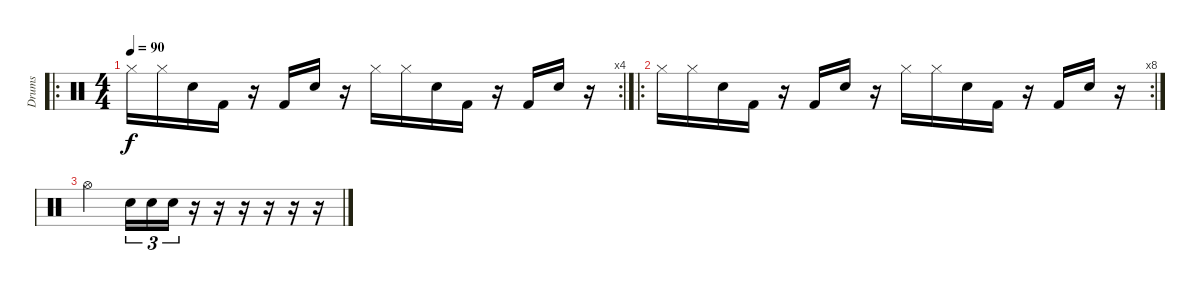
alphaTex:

\track ("Drums" "Drums") {instrument percussion}
\staff {score}
\articulation defaults
\ro
\rc 4
\ts (4 4)
\tempo 90
\clef neutral
\ks c "Hi-Hat (closed)".16{dy f} "Hi-Hat (closed)".16 "Snare (hit) 2".16 "Kick (hit) 2".16
r.16 "Kick (hit) 2".16 "Snare (hit) 2".16 r.16 "Hi-Hat (closed)".16 "Hi-Hat (closed)".16 "Snare (hit) 2".16 "Kick (hit) 2".16 r.16 "Kick (hit) 2".16 "Snare (hit) 2".16 r.16 |
\ro
\rc 8 "Hi-Hat (closed)".16 "Hi-Hat (closed)".16 "Snare (hit) 2".16 "Kick (hit) 2".16
r.16 "Kick (hit) 2".16 "Snare (hit) 2".16 r.16 "Hi-Hat (closed)".16 "Hi-Hat (closed)".16 "Snare (hit) 2".16 "Kick (hit) 2".16 r.16 "Kick (hit) 2".16 "Snare (hit) 2".16 r.16 |
"Hi-Hat (open)".2 "Snare (hit) 2".16{tu (3 2)} "Snare (hit) 2".16{tu (3 2)} "Snare (hit) 2".16{tu (3 2)} r.16 r.16 r.16 r.16 r.16 r.16
